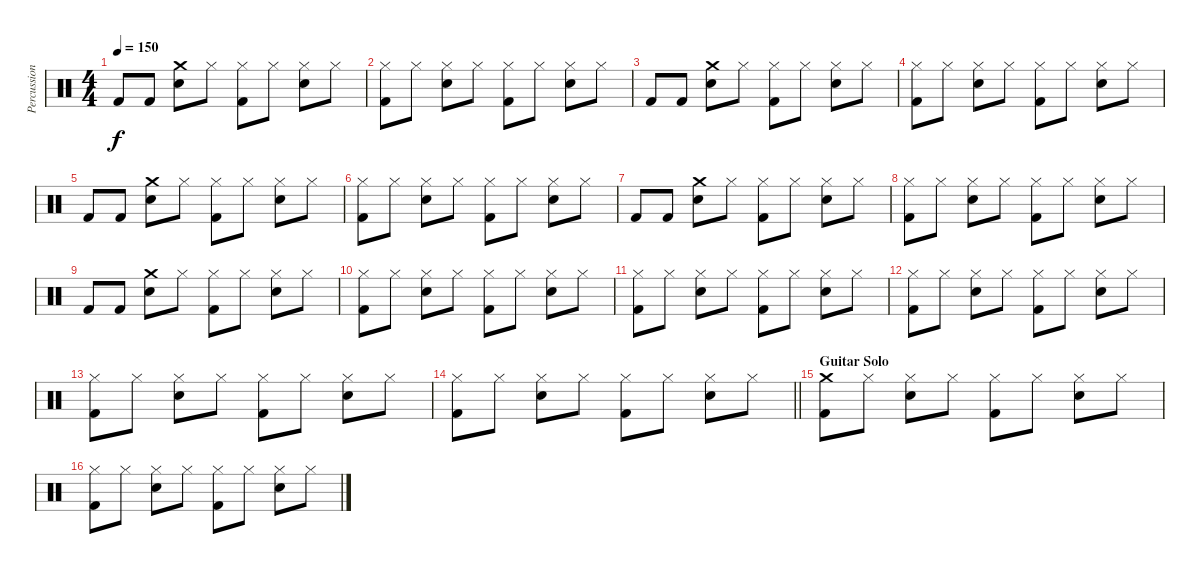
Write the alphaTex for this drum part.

\track ("Percussion" "Percussion") {instrument percussion}
\staff {score}
\articulation defaults
\ts (4 4)
\tempo 150
\clef neutral
\ks c "Kick (hit) 2".8{dy f} "Kick (hit) 2".8
("Crash medium (hit)" "Snare (hit) 2").8 "Hi-Hat (closed)".8 ("Hi-Hat (closed)" "Kick (hit) 2").8 "Hi-Hat (closed)".8 ("Hi-Hat (closed)" "Snare (hit) 2").8 "Hi-Hat (closed)".8 |
("Hi-Hat (closed)" "Kick (hit) 2").8 "Hi-Hat (closed)".8 ("Hi-Hat (closed)" "Snare (hit) 2").8 "Hi-Hat (closed)".8 ("Hi-Hat (closed)" "Kick (hit) 2").8 "Hi-Hat (closed)".8 ("Hi-Hat (closed)" "Snare (hit) 2").8 "Hi-Hat (closed)".8 |
"Kick (hit) 2".8 "Kick (hit) 2".8 ("Crash medium (hit)" "Snare (hit) 2").8 "Hi-Hat (closed)".8 ("Hi-Hat (closed)" "Kick (hit) 2").8 "Hi-Hat (closed)".8 ("Hi-Hat (closed)" "Snare (hit) 2").8 "Hi-Hat (closed)".8 |
("Hi-Hat (closed)" "Kick (hit) 2").8 "Hi-Hat (closed)".8 ("Hi-Hat (closed)" "Snare (hit) 2").8 "Hi-Hat (closed)".8 ("Hi-Hat (closed)" "Kick (hit) 2").8 "Hi-Hat (closed)".8 ("Hi-Hat (closed)" "Snare (hit) 2").8 "Hi-Hat (closed)".8 |
"Kick (hit) 2".8 "Kick (hit) 2".8 ("Crash medium (hit)" "Snare (hit) 2").8 "Hi-Hat (closed)".8 ("Hi-Hat (closed)" "Kick (hit) 2").8 "Hi-Hat (closed)".8 ("Hi-Hat (closed)" "Snare (hit) 2").8 "Hi-Hat (closed)".8 |
("Hi-Hat (closed)" "Kick (hit) 2").8 "Hi-Hat (closed)".8 ("Hi-Hat (closed)" "Snare (hit) 2").8 "Hi-Hat (closed)".8 ("Hi-Hat (closed)" "Kick (hit) 2").8 "Hi-Hat (closed)".8 ("Hi-Hat (closed)" "Snare (hit) 2").8 "Hi-Hat (closed)".8 |
"Kick (hit) 2".8 "Kick (hit) 2".8 ("Crash medium (hit)" "Snare (hit) 2").8 "Hi-Hat (closed)".8 ("Hi-Hat (closed)" "Kick (hit) 2").8 "Hi-Hat (closed)".8 ("Hi-Hat (closed)" "Snare (hit) 2").8 "Hi-Hat (closed)".8 |
("Hi-Hat (closed)" "Kick (hit) 2").8 "Hi-Hat (closed)".8 ("Hi-Hat (closed)" "Snare (hit) 2").8 "Hi-Hat (closed)".8 ("Hi-Hat (closed)" "Kick (hit) 2").8 "Hi-Hat (closed)".8 ("Hi-Hat (closed)" "Snare (hit) 2").8 "Hi-Hat (closed)".8 |
"Kick (hit) 2".8 "Kick (hit) 2".8 ("Crash medium (hit)" "Snare (hit) 2").8 "Hi-Hat (closed)".8 ("Hi-Hat (closed)" "Kick (hit) 2").8 "Hi-Hat (closed)".8 ("Hi-Hat (closed)" "Snare (hit) 2").8 "Hi-Hat (closed)".8 |
("Hi-Hat (closed)" "Kick (hit) 2").8 "Hi-Hat (closed)".8 ("Hi-Hat (closed)" "Snare (hit) 2").8 "Hi-Hat (closed)".8 ("Hi-Hat (closed)" "Kick (hit) 2").8 "Hi-Hat (closed)".8 ("Hi-Hat (closed)" "Snare (hit) 2").8 "Hi-Hat (closed)".8 |
("Hi-Hat (closed)" "Kick (hit) 2").8 "Hi-Hat (closed)".8 ("Hi-Hat (closed)" "Snare (hit) 2").8 "Hi-Hat (closed)".8 ("Hi-Hat (closed)" "Kick (hit) 2").8 "Hi-Hat (closed)".8 ("Hi-Hat (closed)" "Snare (hit) 2").8 "Hi-Hat (closed)".8 |
("Hi-Hat (closed)" "Kick (hit) 2").8 "Hi-Hat (closed)".8 ("Hi-Hat (closed)" "Snare (hit) 2").8 "Hi-Hat (closed)".8 ("Hi-Hat (closed)" "Kick (hit) 2").8 "Hi-Hat (closed)".8 ("Hi-Hat (closed)" "Snare (hit) 2").8 "Hi-Hat (closed)".8 |
("Hi-Hat (closed)" "Kick (hit) 2").8 "Hi-Hat (closed)".8 ("Hi-Hat (closed)" "Snare (hit) 2").8 "Hi-Hat (closed)".8 ("Hi-Hat (closed)" "Kick (hit) 2").8 "Hi-Hat (closed)".8 ("Hi-Hat (closed)" "Snare (hit) 2").8 "Hi-Hat (closed)".8 |
\barLineRight lightlight
("Hi-Hat (closed)" "Kick (hit) 2").8 "Hi-Hat (closed)".8 ("Hi-Hat (closed)" "Snare (hit) 2").8 "Hi-Hat (closed)".8 ("Hi-Hat (closed)" "Kick (hit) 2").8 "Hi-Hat (closed)".8 ("Hi-Hat (closed)" "Snare (hit) 2").8 "Hi-Hat (closed)".8 |
\section ("" "Guitar Solo")
("Crash medium (hit)" "Kick (hit) 2").8 "Hi-Hat (closed)".8 ("Hi-Hat (closed)" "Snare (hit) 2").8 "Hi-Hat (closed)".8 ("Hi-Hat (closed)" "Kick (hit) 2").8 "Hi-Hat (closed)".8 ("Hi-Hat (closed)" "Snare (hit) 2").8 "Hi-Hat (closed)".8 |
("Hi-Hat (closed)" "Kick (hit) 2").8 "Hi-Hat (closed)".8 ("Hi-Hat (closed)" "Snare (hit) 2").8 "Hi-Hat (closed)".8 ("Hi-Hat (closed)" "Kick (hit) 2").8 "Hi-Hat (closed)".8 ("Hi-Hat (closed)" "Snare (hit) 2").8 "Hi-Hat (closed)".8
